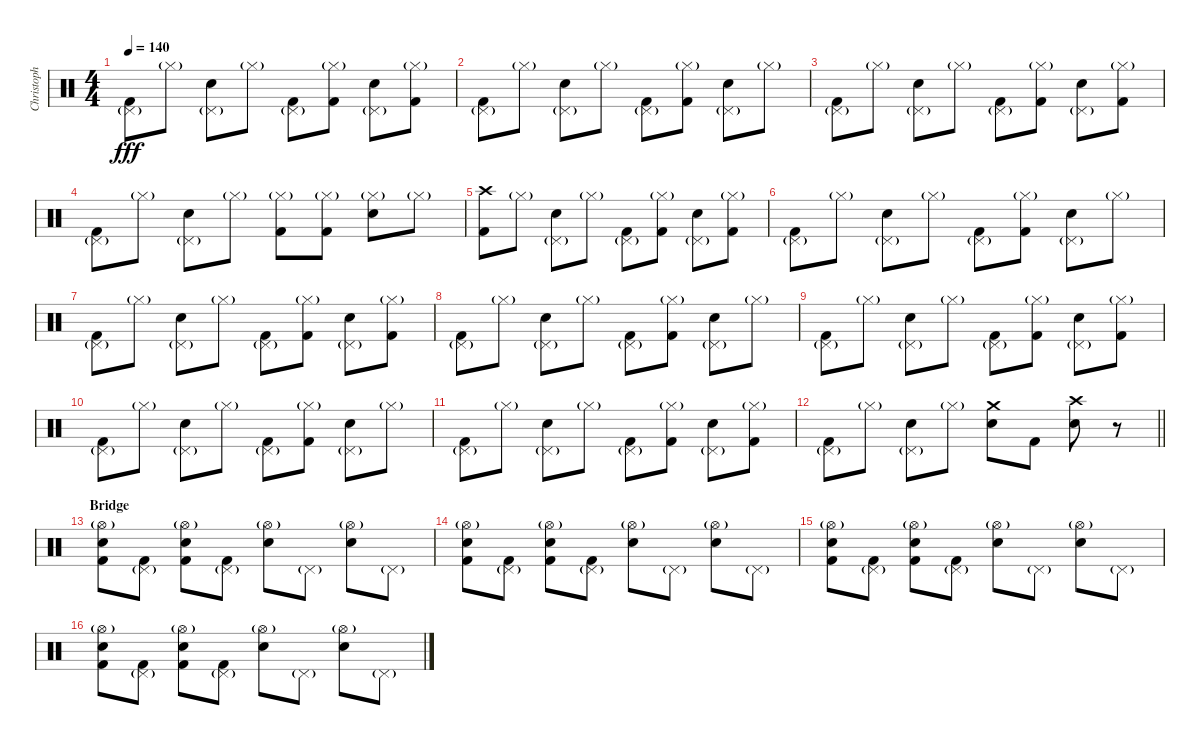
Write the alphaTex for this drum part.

\track ("Christoph" "Christoph") {instrument percussion}
\staff {score}
\articulation defaults
\ts (4 4)
\tempo 140
\clef neutral
\ks c
("Pedal Hi-Hat (hit)"{g} "Kick (hit) 2").8{dy fff} "Hi-Hat (closed)"{g}.8 ("Pedal Hi-Hat (hit)"{g} "Electric Snare (hit)").8 "Hi-Hat (closed)"{g}.8 ("Pedal Hi-Hat (hit)"{g} "Kick (hit) 2").8 ("Hi-Hat (closed)"{g} "Kick (hit) 2").8 ("Pedal Hi-Hat (hit)"{g} "Electric Snare (hit)").8 ("Hi-Hat (closed)"{g} "Kick (hit) 2").8 |
("Pedal Hi-Hat (hit)"{g} "Kick (hit) 2").8 "Hi-Hat (closed)"{g}.8 ("Pedal Hi-Hat (hit)"{g} "Electric Snare (hit)").8 "Hi-Hat (closed)"{g}.8 ("Pedal Hi-Hat (hit)"{g} "Kick (hit) 2").8 ("Hi-Hat (closed)"{g} "Kick (hit) 2").8 ("Pedal Hi-Hat (hit)"{g} "Electric Snare (hit)").8 "Hi-Hat (closed)"{g}.8 |
("Pedal Hi-Hat (hit)"{g} "Kick (hit) 2").8 "Hi-Hat (closed)"{g}.8 ("Pedal Hi-Hat (hit)"{g} "Electric Snare (hit)").8 "Hi-Hat (closed)"{g}.8 ("Pedal Hi-Hat (hit)"{g} "Kick (hit) 2").8 ("Hi-Hat (closed)"{g} "Kick (hit) 2").8 ("Pedal Hi-Hat (hit)"{g} "Electric Snare (hit)").8 ("Hi-Hat (closed)"{g} "Kick (hit) 2").8 |
("Pedal Hi-Hat (hit)"{g} "Kick (hit) 2").8 "Hi-Hat (closed)"{g}.8 ("Pedal Hi-Hat (hit)"{g} "Electric Snare (hit)").8 "Hi-Hat (closed)"{g}.8 ("Hi-Hat (closed)"{g} "Kick (hit) 2").8 ("Hi-Hat (closed)"{g} "Kick (hit) 2").8 ("Hi-Hat (closed)"{g} "Electric Snare (hit)").8 "Hi-Hat (closed)"{g}.8 |
("Crash high (hit)" "Kick (hit) 2").8 "Hi-Hat (closed)"{g}.8 ("Pedal Hi-Hat (hit)"{g} "Electric Snare (hit)").8 "Hi-Hat (closed)"{g}.8 ("Pedal Hi-Hat (hit)"{g} "Kick (hit) 2").8 ("Hi-Hat (closed)"{g} "Kick (hit) 2").8 ("Pedal Hi-Hat (hit)"{g} "Electric Snare (hit)").8 ("Hi-Hat (closed)"{g} "Kick (hit) 2").8 |
("Pedal Hi-Hat (hit)"{g} "Kick (hit) 2").8 "Hi-Hat (closed)"{g}.8 ("Pedal Hi-Hat (hit)"{g} "Electric Snare (hit)").8 "Hi-Hat (closed)"{g}.8 ("Pedal Hi-Hat (hit)"{g} "Kick (hit) 2").8 ("Hi-Hat (closed)"{g} "Kick (hit) 2").8 ("Pedal Hi-Hat (hit)"{g} "Electric Snare (hit)").8 "Hi-Hat (closed)"{g}.8 |
("Pedal Hi-Hat (hit)"{g} "Kick (hit) 2").8 "Hi-Hat (closed)"{g}.8 ("Pedal Hi-Hat (hit)"{g} "Electric Snare (hit)").8 "Hi-Hat (closed)"{g}.8 ("Pedal Hi-Hat (hit)"{g} "Kick (hit) 2").8 ("Hi-Hat (closed)"{g} "Kick (hit) 2").8 ("Pedal Hi-Hat (hit)"{g} "Electric Snare (hit)").8 ("Hi-Hat (closed)"{g} "Kick (hit) 2").8 |
("Pedal Hi-Hat (hit)"{g} "Kick (hit) 2").8 "Hi-Hat (closed)"{g}.8 ("Pedal Hi-Hat (hit)"{g} "Electric Snare (hit)").8 "Hi-Hat (closed)"{g}.8 ("Pedal Hi-Hat (hit)"{g} "Kick (hit) 2").8 ("Hi-Hat (closed)"{g} "Kick (hit) 2").8 ("Pedal Hi-Hat (hit)"{g} "Electric Snare (hit)").8 "Hi-Hat (closed)"{g}.8 |
("Pedal Hi-Hat (hit)"{g} "Kick (hit) 2").8 "Hi-Hat (closed)"{g}.8 ("Pedal Hi-Hat (hit)"{g} "Electric Snare (hit)").8 "Hi-Hat (closed)"{g}.8 ("Pedal Hi-Hat (hit)"{g} "Kick (hit) 2").8 ("Hi-Hat (closed)"{g} "Kick (hit) 2").8 ("Pedal Hi-Hat (hit)"{g} "Electric Snare (hit)").8 ("Hi-Hat (closed)"{g} "Kick (hit) 2").8 |
("Pedal Hi-Hat (hit)"{g} "Kick (hit) 2").8 "Hi-Hat (closed)"{g}.8 ("Pedal Hi-Hat (hit)"{g} "Electric Snare (hit)").8 "Hi-Hat (closed)"{g}.8 ("Pedal Hi-Hat (hit)"{g} "Kick (hit) 2").8 ("Hi-Hat (closed)"{g} "Kick (hit) 2").8 ("Pedal Hi-Hat (hit)"{g} "Electric Snare (hit)").8 "Hi-Hat (closed)"{g}.8 |
("Pedal Hi-Hat (hit)"{g} "Kick (hit) 2").8 "Hi-Hat (closed)"{g}.8 ("Pedal Hi-Hat (hit)"{g} "Electric Snare (hit)").8 "Hi-Hat (closed)"{g}.8 ("Pedal Hi-Hat (hit)"{g} "Kick (hit) 2").8 ("Hi-Hat (closed)"{g} "Kick (hit) 2").8 ("Pedal Hi-Hat (hit)"{g} "Electric Snare (hit)").8 ("Hi-Hat (closed)"{g} "Kick (hit) 2").8 |
\barLineRight lightlight
("Pedal Hi-Hat (hit)"{g} "Kick (hit) 2").8 "Hi-Hat (closed)"{g}.8 ("Pedal Hi-Hat (hit)"{g} "Electric Snare (hit)").8 "Hi-Hat (closed)"{g}.8 ("Crash medium (hit)" "Electric Snare (hit)").8 "Kick (hit) 2".8 ("Crash high (hit)" "Electric Snare (hit)").8 r.8 |
\section ("" "Bridge")
("Hi-Hat (open)"{g} "Electric Snare (hit)" "Kick (hit) 2").8 ("Pedal Hi-Hat (hit)"{g} "Kick (hit) 2").8 ("Hi-Hat (open)"{g} "Electric Snare (hit)" "Kick (hit) 2").8 ("Pedal Hi-Hat (hit)"{g} "Kick (hit) 2").8 ("Hi-Hat (open)"{g} "Electric Snare (hit)").8 "Pedal Hi-Hat (hit)"{g}.8 ("Hi-Hat (open)"{g} "Electric Snare (hit)").8 "Pedal Hi-Hat (hit)"{g}.8 |
("Hi-Hat (open)"{g} "Electric Snare (hit)" "Kick (hit) 2").8 ("Pedal Hi-Hat (hit)"{g} "Kick (hit) 2").8 ("Hi-Hat (open)"{g} "Electric Snare (hit)" "Kick (hit) 2").8 ("Pedal Hi-Hat (hit)"{g} "Kick (hit) 2").8 ("Hi-Hat (open)"{g} "Electric Snare (hit)").8 "Pedal Hi-Hat (hit)"{g}.8 ("Hi-Hat (open)"{g} "Electric Snare (hit)").8 "Pedal Hi-Hat (hit)"{g}.8 |
("Hi-Hat (open)"{g} "Electric Snare (hit)" "Kick (hit) 2").8 ("Pedal Hi-Hat (hit)"{g} "Kick (hit) 2").8 ("Hi-Hat (open)"{g} "Electric Snare (hit)" "Kick (hit) 2").8 ("Pedal Hi-Hat (hit)"{g} "Kick (hit) 2").8 ("Hi-Hat (open)"{g} "Electric Snare (hit)").8 "Pedal Hi-Hat (hit)"{g}.8 ("Hi-Hat (open)"{g} "Electric Snare (hit)").8 "Pedal Hi-Hat (hit)"{g}.8 |
("Hi-Hat (open)"{g} "Electric Snare (hit)" "Kick (hit) 2").8 ("Pedal Hi-Hat (hit)"{g} "Kick (hit) 2").8 ("Hi-Hat (open)"{g} "Electric Snare (hit)" "Kick (hit) 2").8 ("Pedal Hi-Hat (hit)"{g} "Kick (hit) 2").8 ("Hi-Hat (open)"{g} "Electric Snare (hit)").8 "Pedal Hi-Hat (hit)"{g}.8 ("Hi-Hat (open)"{g} "Electric Snare (hit)").8 "Pedal Hi-Hat (hit)"{g}.8
